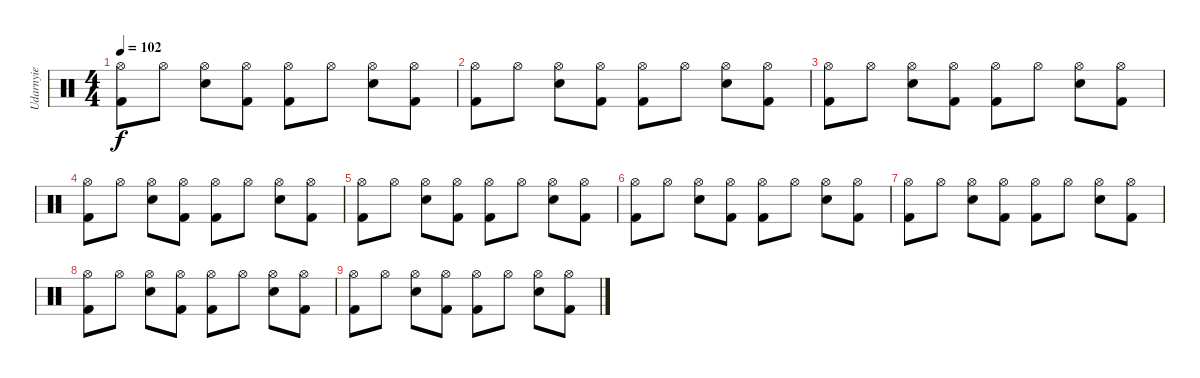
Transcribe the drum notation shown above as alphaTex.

\track ("Udarnyie" "Udarnyie") {instrument percussion}
\staff {score}
\articulation defaults
\ts (4 4)
\tempo 102
\clef neutral
\ks c
("Hi-Hat (open)" "Kick (hit) 2").8{dy f} "Hi-Hat (open)".8 ("Hi-Hat (open)" "Snare (hit) 2").8 ("Hi-Hat (open)" "Kick (hit) 2").8 ("Hi-Hat (open)" "Kick (hit) 2").8 "Hi-Hat (open)".8 ("Hi-Hat (open)" "Snare (hit) 2").8 ("Hi-Hat (open)" "Kick (hit) 2").8 |
("Hi-Hat (open)" "Kick (hit) 2").8 "Hi-Hat (open)".8 ("Hi-Hat (open)" "Snare (hit) 2").8 ("Hi-Hat (open)" "Kick (hit) 2").8 ("Hi-Hat (open)" "Kick (hit) 2").8 "Hi-Hat (open)".8 ("Hi-Hat (open)" "Snare (hit) 2").8 ("Hi-Hat (open)" "Kick (hit) 2").8 |
("Hi-Hat (open)" "Kick (hit) 2").8 "Hi-Hat (open)".8 ("Hi-Hat (open)" "Snare (hit) 2").8 ("Hi-Hat (open)" "Kick (hit) 2").8 ("Hi-Hat (open)" "Kick (hit) 2").8 "Hi-Hat (open)".8 ("Hi-Hat (open)" "Snare (hit) 2").8 ("Hi-Hat (open)" "Kick (hit) 2").8 |
("Hi-Hat (open)" "Kick (hit) 2").8 "Hi-Hat (open)".8 ("Hi-Hat (open)" "Snare (hit) 2").8 ("Hi-Hat (open)" "Kick (hit) 2").8 ("Hi-Hat (open)" "Kick (hit) 2").8 "Hi-Hat (open)".8 ("Hi-Hat (open)" "Snare (hit) 2").8 ("Hi-Hat (open)" "Kick (hit) 2").8 |
("Hi-Hat (open)" "Kick (hit) 2").8 "Hi-Hat (open)".8 ("Hi-Hat (open)" "Snare (hit) 2").8 ("Hi-Hat (open)" "Kick (hit) 2").8 ("Hi-Hat (open)" "Kick (hit) 2").8 "Hi-Hat (open)".8 ("Hi-Hat (open)" "Snare (hit) 2").8 ("Hi-Hat (open)" "Kick (hit) 2").8 |
("Hi-Hat (open)" "Kick (hit) 2").8 "Hi-Hat (open)".8 ("Hi-Hat (open)" "Snare (hit) 2").8 ("Hi-Hat (open)" "Kick (hit) 2").8 ("Hi-Hat (open)" "Kick (hit) 2").8 "Hi-Hat (open)".8 ("Hi-Hat (open)" "Snare (hit) 2").8 ("Hi-Hat (open)" "Kick (hit) 2").8 |
("Hi-Hat (open)" "Kick (hit) 2").8 "Hi-Hat (open)".8 ("Hi-Hat (open)" "Snare (hit) 2").8 ("Hi-Hat (open)" "Kick (hit) 2").8 ("Hi-Hat (open)" "Kick (hit) 2").8 "Hi-Hat (open)".8 ("Hi-Hat (open)" "Snare (hit) 2").8 ("Hi-Hat (open)" "Kick (hit) 2").8 |
("Hi-Hat (open)" "Kick (hit) 2").8 "Hi-Hat (open)".8 ("Hi-Hat (open)" "Snare (hit) 2").8 ("Hi-Hat (open)" "Kick (hit) 2").8 ("Hi-Hat (open)" "Kick (hit) 2").8 "Hi-Hat (open)".8 ("Hi-Hat (open)" "Snare (hit) 2").8 ("Hi-Hat (open)" "Kick (hit) 2").8 |
("Hi-Hat (open)" "Kick (hit) 2").8 "Hi-Hat (open)".8 ("Hi-Hat (open)" "Snare (hit) 2").8 ("Hi-Hat (open)" "Kick (hit) 2").8 ("Hi-Hat (open)" "Kick (hit) 2").8 "Hi-Hat (open)".8 ("Hi-Hat (open)" "Snare (hit) 2").8 ("Hi-Hat (open)" "Kick (hit) 2").8
